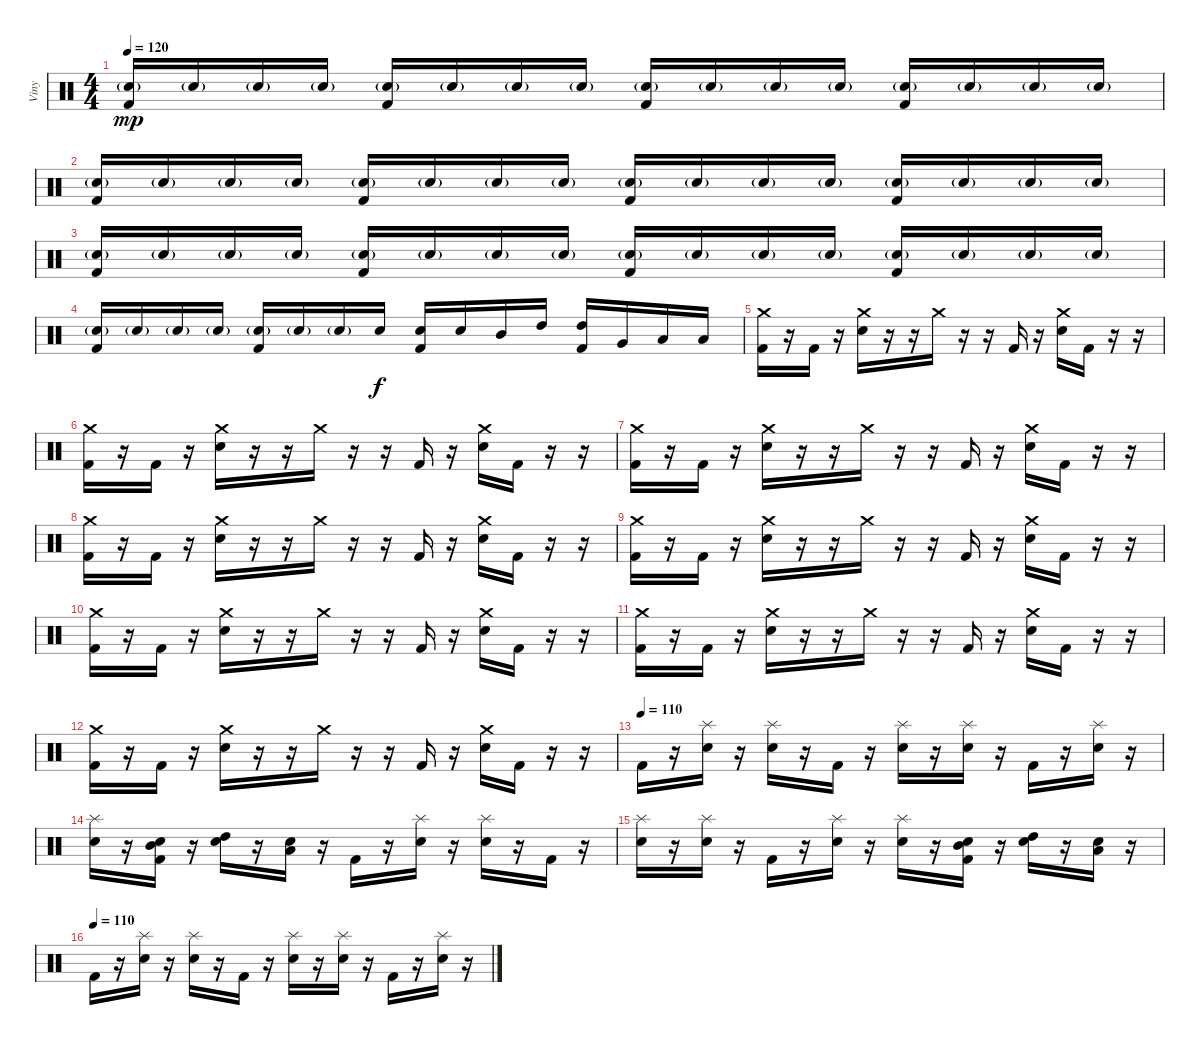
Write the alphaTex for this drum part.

\track ("Viny" "Viny") {instrument percussion}
\staff {score}
\articulation defaults
\ts (4 4)
\tempo 120
\clef neutral
\ks c
("Electric Snare (hit)"{g} "Kick (hit) 2").16{dy mp} "Electric Snare (hit)"{g}.16 "Electric Snare (hit)"{g}.16 "Electric Snare (hit)"{g}.16 ("Electric Snare (hit)"{g} "Kick (hit) 2").16 "Electric Snare (hit)"{g}.16 "Electric Snare (hit)"{g}.16 "Electric Snare (hit)"{g}.16 ("Electric Snare (hit)"{g} "Kick (hit) 2").16 "Electric Snare (hit)"{g}.16 "Electric Snare (hit)"{g}.16 "Electric Snare (hit)"{g}.16 ("Electric Snare (hit)"{g} "Kick (hit) 2").16 "Electric Snare (hit)"{g}.16 "Electric Snare (hit)"{g}.16 "Electric Snare (hit)"{g}.16 |
("Electric Snare (hit)"{g} "Kick (hit) 2").16 "Electric Snare (hit)"{g}.16 "Electric Snare (hit)"{g}.16 "Electric Snare (hit)"{g}.16 ("Electric Snare (hit)"{g} "Kick (hit) 2").16 "Electric Snare (hit)"{g}.16 "Electric Snare (hit)"{g}.16 "Electric Snare (hit)"{g}.16 ("Electric Snare (hit)"{g} "Kick (hit) 2").16 "Electric Snare (hit)"{g}.16 "Electric Snare (hit)"{g}.16 "Electric Snare (hit)"{g}.16 ("Electric Snare (hit)"{g} "Kick (hit) 2").16 "Electric Snare (hit)"{g}.16 "Electric Snare (hit)"{g}.16 "Electric Snare (hit)"{g}.16 |
("Electric Snare (hit)"{g} "Kick (hit) 2").16 "Electric Snare (hit)"{g}.16 "Electric Snare (hit)"{g}.16 "Electric Snare (hit)"{g}.16 ("Electric Snare (hit)"{g} "Kick (hit) 2").16 "Electric Snare (hit)"{g}.16 "Electric Snare (hit)"{g}.16 "Electric Snare (hit)"{g}.16 ("Electric Snare (hit)"{g} "Kick (hit) 2").16 "Electric Snare (hit)"{g}.16 "Electric Snare (hit)"{g}.16 "Electric Snare (hit)"{g}.16 ("Electric Snare (hit)"{g} "Kick (hit) 2").16 "Electric Snare (hit)"{g}.16 "Electric Snare (hit)"{g}.16 "Electric Snare (hit)"{g}.16 |
("Electric Snare (hit)"{g} "Kick (hit) 2").16 "Electric Snare (hit)"{g}.16 "Electric Snare (hit)"{g}.16 "Electric Snare (hit)"{g}.16 ("Electric Snare (hit)"{g} "Kick (hit) 2").16 "Electric Snare (hit)"{g}.16 "Electric Snare (hit)"{g}.16 "Electric Snare (hit)".16{dy f} ("Electric Snare (hit)" "Kick (hit) 2").16 "Electric Snare (hit)".16 "Mid Tom (hit)".16 "High Tom (hit)".16 ("High Tom (hit)" "Kick (hit) 2").16 "Very Low Tom (hit)".16 "Low Tom (hit)".16 "Low Tom (hit)".16 |
("Crash medium (hit)" "Kick (hit) 2").16 r.16 "Kick (hit) 2".16 r.16 ("Crash medium (hit)" "Electric Snare (hit)").16 r.16 r.16 "Crash medium (hit)".16 r.16 r.16 "Kick (hit) 2".16 r.16 ("Crash medium (hit)" "Electric Snare (hit)").16 "Kick (hit) 2".16 r.16 r.16 |
("Crash medium (hit)" "Kick (hit) 2").16 r.16 "Kick (hit) 2".16 r.16 ("Crash medium (hit)" "Electric Snare (hit)").16 r.16 r.16 "Crash medium (hit)".16 r.16 r.16 "Kick (hit) 2".16 r.16 ("Crash medium (hit)" "Electric Snare (hit)").16 "Kick (hit) 2".16 r.16 r.16 |
("Crash medium (hit)" "Kick (hit) 2").16 r.16 "Kick (hit) 2".16 r.16 ("Crash medium (hit)" "Electric Snare (hit)").16 r.16 r.16 "Crash medium (hit)".16 r.16 r.16 "Kick (hit) 2".16 r.16 ("Crash medium (hit)" "Electric Snare (hit)").16 "Kick (hit) 2".16 r.16 r.16 |
("Crash medium (hit)" "Kick (hit) 2").16 r.16 "Kick (hit) 2".16 r.16 ("Crash medium (hit)" "Electric Snare (hit)").16 r.16 r.16 "Crash medium (hit)".16 r.16 r.16 "Kick (hit) 2".16 r.16 ("Crash medium (hit)" "Electric Snare (hit)").16 "Kick (hit) 2".16 r.16 r.16 |
("Crash medium (hit)" "Kick (hit) 2").16 r.16 "Kick (hit) 2".16 r.16 ("Crash medium (hit)" "Electric Snare (hit)").16 r.16 r.16 "Crash medium (hit)".16 r.16 r.16 "Kick (hit) 2".16 r.16 ("Crash medium (hit)" "Electric Snare (hit)").16 "Kick (hit) 2".16 r.16 r.16 |
("Crash medium (hit)" "Kick (hit) 2").16 r.16 "Kick (hit) 2".16 r.16 ("Crash medium (hit)" "Electric Snare (hit)").16 r.16 r.16 "Crash medium (hit)".16 r.16 r.16 "Kick (hit) 2".16 r.16 ("Crash medium (hit)" "Electric Snare (hit)").16 "Kick (hit) 2".16 r.16 r.16 |
("Crash medium (hit)" "Kick (hit) 2").16 r.16 "Kick (hit) 2".16 r.16 ("Crash medium (hit)" "Electric Snare (hit)").16 r.16 r.16 "Crash medium (hit)".16 r.16 r.16 "Kick (hit) 2".16 r.16 ("Crash medium (hit)" "Electric Snare (hit)").16 "Kick (hit) 2".16 r.16 r.16 |
("Crash medium (hit)" "Kick (hit) 2").16 r.16 "Kick (hit) 2".16 r.16 ("Crash medium (hit)" "Electric Snare (hit)").16 r.16 r.16 "Crash medium (hit)".16 r.16 r.16 "Kick (hit) 2".16 r.16 ("Crash medium (hit)" "Electric Snare (hit)").16 "Kick (hit) 2".16 r.16 r.16 |
\tempo (110)
"Kick (hit) 2".16 r.16 ("Splash (hit)" "Electric Snare (hit)").16 r.16 ("Splash (hit)" "Electric Snare (hit)").16 r.16 "Kick (hit) 2".16 r.16 ("Splash (hit)" "Electric Snare (hit)").16 r.16 ("Splash (hit)" "Electric Snare (hit)").16 r.16 "Kick (hit) 2".16 r.16 ("Splash (hit)" "Electric Snare (hit)").16 r.16 |
("Splash (hit)" "Electric Snare (hit)").16 r.16 ("Mid Tom (hit)" "Electric Snare (hit)" "Kick (hit) 2").16 r.16 ("High Tom (hit)" "Electric Snare (hit)").16 r.16 ("Low Tom (hit)" "Electric Snare (hit)").16 r.16 "Kick (hit) 2".16 r.16 ("Splash (hit)" "Electric Snare (hit)").16 r.16 ("Splash (hit)" "Electric Snare (hit)").16 r.16 "Kick (hit) 2".16 r.16 |
("Splash (hit)" "Electric Snare (hit)").16 r.16 ("Splash (hit)" "Electric Snare (hit)").16 r.16 "Kick (hit) 2".16 r.16 ("Splash (hit)" "Electric Snare (hit)").16 r.16 ("Splash (hit)" "Electric Snare (hit)").16 r.16 ("Mid Tom (hit)" "Electric Snare (hit)" "Kick (hit) 2").16 r.16 ("High Tom (hit)" "Electric Snare (hit)").16 r.16 ("Low Tom (hit)" "Electric Snare (hit)").16 r.16 |
\tempo (110)
"Kick (hit) 2".16 r.16 ("Splash (hit)" "Electric Snare (hit)").16 r.16 ("Splash (hit)" "Electric Snare (hit)").16 r.16 "Kick (hit) 2".16 r.16 ("Splash (hit)" "Electric Snare (hit)").16 r.16 ("Splash (hit)" "Electric Snare (hit)").16 r.16 "Kick (hit) 2".16 r.16 ("Splash (hit)" "Electric Snare (hit)").16 r.16
